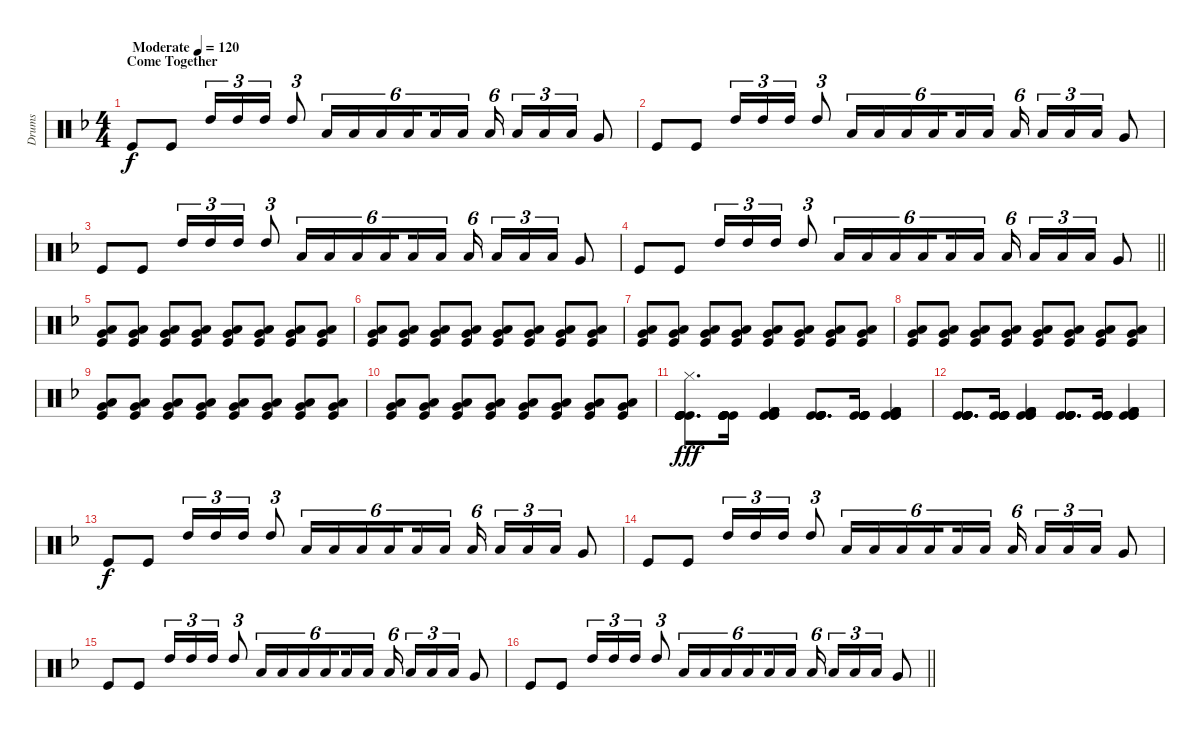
\track ("Drums" "Drums") {instrument percussion}
\staff {score}
\articulation defaults
\ts (4 4)
\section ("" "Come Together")
\tempo (120 "Moderate")
\tempo 80
\tempo (120 "Moderate")
\clef neutral
\ks f "Kick (hit)".8{dy f} "Kick (hit)".8 "High Tom (hit)".16{tu (3 2) beam Up} "High Tom (hit)".16{tu (3 2) beam Up} "High Tom (hit)".16{tu (3 2) beam Up} "High Tom (hit)".8{tu (3 2) beam Up} "Low Tom (hit)".16{tu (6 4) beam Up} "Low Tom (hit)".16{tu (6 4)} "Low Tom (hit)".16{tu (6 4)} "Low Tom (hit)".16{tu (6 4) beam splitsecondary} "Low Tom (hit)".16{tu (6 4)} "Low Tom (hit)".16{tu (6 4)} "Low Tom (hit)".16{tu (6 4)} "Low Tom (hit)".16{tu (3 2)} "Low Tom (hit)".16{tu (3 2)} "Low Tom (hit)".16{tu (3 2)} "Very Low Tom (hit)".8
|
"Kick (hit)".8 "Kick (hit)".8 "High Tom (hit)".16{tu (3 2) beam Up} "High Tom (hit)".16{tu (3 2) beam Up} "High Tom (hit)".16{tu (3 2) beam Up} "High Tom (hit)".8{tu (3 2) beam Up} "Low Tom (hit)".16{tu (6 4) beam Up} "Low Tom (hit)".16{tu (6 4)} "Low Tom (hit)".16{tu (6 4)} "Low Tom (hit)".16{tu (6 4) beam splitsecondary} "Low Tom (hit)".16{tu (6 4)} "Low Tom (hit)".16{tu (6 4)} "Low Tom (hit)".16{tu (6 4)} "Low Tom (hit)".16{tu (3 2)} "Low Tom (hit)".16{tu (3 2)} "Low Tom (hit)".16{tu (3 2)} "Very Low Tom (hit)".8 |
"Kick (hit)".8 "Kick (hit)".8 "High Tom (hit)".16{tu (3 2) beam Up} "High Tom (hit)".16{tu (3 2) beam Up} "High Tom (hit)".16{tu (3 2) beam Up} "High Tom (hit)".8{tu (3 2) beam Up} "Low Tom (hit)".16{tu (6 4) beam Up} "Low Tom (hit)".16{tu (6 4)} "Low Tom (hit)".16{tu (6 4)} "Low Tom (hit)".16{tu (6 4) beam splitsecondary} "Low Tom (hit)".16{tu (6 4)} "Low Tom (hit)".16{tu (6 4)} "Low Tom (hit)".16{tu (6 4)} "Low Tom (hit)".16{tu (3 2)} "Low Tom (hit)".16{tu (3 2)} "Low Tom (hit)".16{tu (3 2)} "Very Low Tom (hit)".8 |
\barLineRight lightlight "Kick (hit)".8 "Kick (hit)".8 "High Tom (hit)".16{tu (3 2) beam Up} "High Tom (hit)".16{tu (3 2) beam Up} "High Tom (hit)".16{tu (3 2) beam Up} "High Tom (hit)".8{tu (3 2) beam Up} "Low Tom (hit)".16{tu (6 4) beam Up} "Low Tom (hit)".16{tu (6 4)} "Low Tom (hit)".16{tu (6 4)} "Low Tom (hit)".16{tu (6 4) beam splitsecondary} "Low Tom (hit)".16{tu (6 4)} "Low Tom (hit)".16{tu (6 4)} "Low Tom (hit)".16{tu (6 4)} "Low Tom (hit)".16{tu (3 2)} "Low Tom (hit)".16{tu (3 2)} "Low Tom (hit)".16{tu (3 2)} "Very Low Tom (hit)".8
|
("Very Low Tom (hit)" "Kick (hit)" "Low Tom (hit)").8 ("Very Low Tom (hit)" "Kick (hit)" "Low Tom (hit)").8 ("Very Low Tom (hit)" "Kick (hit)" "Low Tom (hit)").8 ("Very Low Tom (hit)" "Kick (hit)" "Low Tom (hit)").8 ("Very Low Tom (hit)" "Kick (hit)" "Low Tom (hit)").8 ("Very Low Tom (hit)" "Kick (hit)" "Low Tom (hit)").8 ("Very Low Tom (hit)" "Kick (hit)" "Low Tom (hit)").8 ("Very Low Tom (hit)" "Kick (hit)" "Low Tom (hit)").8 |
("Very Low Tom (hit)" "Kick (hit)" "Low Tom (hit)").8 ("Very Low Tom (hit)" "Kick (hit)" "Low Tom (hit)").8 ("Very Low Tom (hit)" "Kick (hit)" "Low Tom (hit)").8 ("Very Low Tom (hit)" "Kick (hit)" "Low Tom (hit)").8 ("Very Low Tom (hit)" "Kick (hit)" "Low Tom (hit)").8 ("Very Low Tom (hit)" "Kick (hit)" "Low Tom (hit)").8 ("Very Low Tom (hit)" "Kick (hit)" "Low Tom (hit)").8 ("Very Low Tom (hit)" "Kick (hit)" "Low Tom (hit)").8 |
("Very Low Tom (hit)" "Kick (hit)" "Low Tom (hit)").8 ("Very Low Tom (hit)" "Kick (hit)" "Low Tom (hit)").8 ("Very Low Tom (hit)" "Kick (hit)" "Low Tom (hit)").8 ("Very Low Tom (hit)" "Kick (hit)" "Low Tom (hit)").8 ("Very Low Tom (hit)" "Kick (hit)" "Low Tom (hit)").8 ("Very Low Tom (hit)" "Kick (hit)" "Low Tom (hit)").8 ("Very Low Tom (hit)" "Kick (hit)" "Low Tom (hit)").8 ("Very Low Tom (hit)" "Kick (hit)" "Low Tom (hit)").8 |
("Very Low Tom (hit)" "Kick (hit)" "Low Tom (hit)").8 ("Very Low Tom (hit)" "Kick (hit)" "Low Tom (hit)").8 ("Very Low Tom (hit)" "Kick (hit)" "Low Tom (hit)").8 ("Very Low Tom (hit)" "Kick (hit)" "Low Tom (hit)").8 ("Very Low Tom (hit)" "Kick (hit)" "Low Tom (hit)").8 ("Very Low Tom (hit)" "Kick (hit)" "Low Tom (hit)").8 ("Very Low Tom (hit)" "Kick (hit)" "Low Tom (hit)").8 ("Very Low Tom (hit)" "Kick (hit)" "Low Tom (hit)").8 |
("Very Low Tom (hit)" "Kick (hit)" "Low Tom (hit)").8 ("Very Low Tom (hit)" "Kick (hit)" "Low Tom (hit)").8 ("Very Low Tom (hit)" "Kick (hit)" "Low Tom (hit)").8 ("Very Low Tom (hit)" "Kick (hit)" "Low Tom (hit)").8 ("Very Low Tom (hit)" "Kick (hit)" "Low Tom (hit)").8 ("Very Low Tom (hit)" "Kick (hit)" "Low Tom (hit)").8 ("Very Low Tom (hit)" "Kick (hit)" "Low Tom (hit)").8 ("Very Low Tom (hit)" "Kick (hit)" "Low Tom (hit)").8 |
("Very Low Tom (hit)" "Kick (hit)" "Low Tom (hit)").8 ("Very Low Tom (hit)" "Kick (hit)" "Low Tom (hit)").8 ("Very Low Tom (hit)" "Kick (hit)" "Low Tom (hit)").8 ("Very Low Tom (hit)" "Kick (hit)" "Low Tom (hit)").8 ("Very Low Tom (hit)" "Kick (hit)" "Low Tom (hit)").8 ("Very Low Tom (hit)" "Kick (hit)" "Low Tom (hit)").8 ("Very Low Tom (hit)" "Kick (hit)" "Low Tom (hit)").8 ("Very Low Tom (hit)" "Kick (hit)" "Low Tom (hit)").8 |
("Hi-Hat (closed)" "Kick (hit)" "Kick (hit)" "Kick (hit)" "Kick (hit)" "Kick (hit)").8{d dy fff} ("Kick (hit)" "Kick (hit)" "Kick (hit)" "Kick (hit)" "Kick (hit)" "Kick (hit)").16 ("Kick (hit)" "Kick (hit) 2" "Kick (hit)" "Kick (hit) 2" "Kick (hit)" "Kick (hit) 2").4 ("Kick (hit)" "Kick (hit)" "Kick (hit)" "Kick (hit)" "Kick (hit)" "Kick (hit)").8{d} ("Kick (hit)" "Kick (hit)" "Kick (hit)" "Kick (hit)" "Kick (hit)" "Kick (hit)").16 ("Kick (hit)" "Kick (hit) 2" "Kick (hit)" "Kick (hit) 2" "Kick (hit)" "Kick (hit) 2").4 |
("Kick (hit)" "Kick (hit)" "Kick (hit)" "Kick (hit)" "Kick (hit)" "Kick (hit)").8{d} ("Kick (hit)" "Kick (hit)" "Kick (hit)" "Kick (hit)" "Kick (hit)" "Kick (hit)").16 ("Kick (hit)" "Kick (hit) 2" "Kick (hit)" "Kick (hit) 2" "Kick (hit)" "Kick (hit) 2").4 ("Kick (hit)" "Kick (hit)" "Kick (hit)" "Kick (hit)" "Kick (hit)" "Kick (hit)").8{d} ("Kick (hit)" "Kick (hit)" "Kick (hit)" "Kick (hit)" "Kick (hit)" "Kick (hit)").16 ("Kick (hit)" "Kick (hit) 2" "Kick (hit)" "Kick (hit) 2" "Kick (hit)" "Kick (hit) 2").4 |
"Kick (hit)".8{dy f} "Kick (hit)".8 "High Tom (hit)".16{tu (3 2) beam Up} "High Tom (hit)".16{tu (3 2) beam Up} "High Tom (hit)".16{tu (3 2) beam Up} "High Tom (hit)".8{tu (3 2) beam Up} "Low Tom (hit)".16{tu (6 4) beam Up} "Low Tom (hit)".16{tu (6 4)} "Low Tom (hit)".16{tu (6 4)} "Low Tom (hit)".16{tu (6 4) beam splitsecondary} "Low Tom (hit)".16{tu (6 4)} "Low Tom (hit)".16{tu (6 4)} "Low Tom (hit)".16{tu (6 4)} "Low Tom (hit)".16{tu (3 2)} "Low Tom (hit)".16{tu (3 2)} "Low Tom (hit)".16{tu (3 2)} "Very Low Tom (hit)".8 |
"Kick (hit)".8 "Kick (hit)".8 "High Tom (hit)".16{tu (3 2) beam Up} "High Tom (hit)".16{tu (3 2) beam Up} "High Tom (hit)".16{tu (3 2) beam Up} "High Tom (hit)".8{tu (3 2) beam Up} "Low Tom (hit)".16{tu (6 4) beam Up} "Low Tom (hit)".16{tu (6 4)} "Low Tom (hit)".16{tu (6 4)} "Low Tom (hit)".16{tu (6 4) beam splitsecondary} "Low Tom (hit)".16{tu (6 4)} "Low Tom (hit)".16{tu (6 4)} "Low Tom (hit)".16{tu (6 4)} "Low Tom (hit)".16{tu (3 2)} "Low Tom (hit)".16{tu (3 2)} "Low Tom (hit)".16{tu (3 2)} "Very Low Tom (hit)".8 |
"Kick (hit)".8 "Kick (hit)".8 "High Tom (hit)".16{tu (3 2) beam Up} "High Tom (hit)".16{tu (3 2) beam Up} "High Tom (hit)".16{tu (3 2) beam Up} "High Tom (hit)".8{tu (3 2) beam Up} "Low Tom (hit)".16{tu (6 4) beam Up} "Low Tom (hit)".16{tu (6 4)} "Low Tom (hit)".16{tu (6 4)} "Low Tom (hit)".16{tu (6 4) beam splitsecondary} "Low Tom (hit)".16{tu (6 4)} "Low Tom (hit)".16{tu (6 4)} "Low Tom (hit)".16{tu (6 4)} "Low Tom (hit)".16{tu (3 2)} "Low Tom (hit)".16{tu (3 2)} "Low Tom (hit)".16{tu (3 2)} "Very Low Tom (hit)".8 |
\barLineRight lightlight "Kick (hit)".8 "Kick (hit)".8 "High Tom (hit)".16{tu (3 2) beam Up} "High Tom (hit)".16{tu (3 2) beam Up} "High Tom (hit)".16{tu (3 2) beam Up} "High Tom (hit)".8{tu (3 2) beam Up} "Low Tom (hit)".16{tu (6 4) beam Up} "Low Tom (hit)".16{tu (6 4)} "Low Tom (hit)".16{tu (6 4)} "Low Tom (hit)".16{tu (6 4) beam splitsecondary} "Low Tom (hit)".16{tu (6 4)} "Low Tom (hit)".16{tu (6 4)} "Low Tom (hit)".16{tu (6 4)} "Low Tom (hit)".16{tu (3 2)} "Low Tom (hit)".16{tu (3 2)} "Low Tom (hit)".16{tu (3 2)} "Very Low Tom (hit)".8
